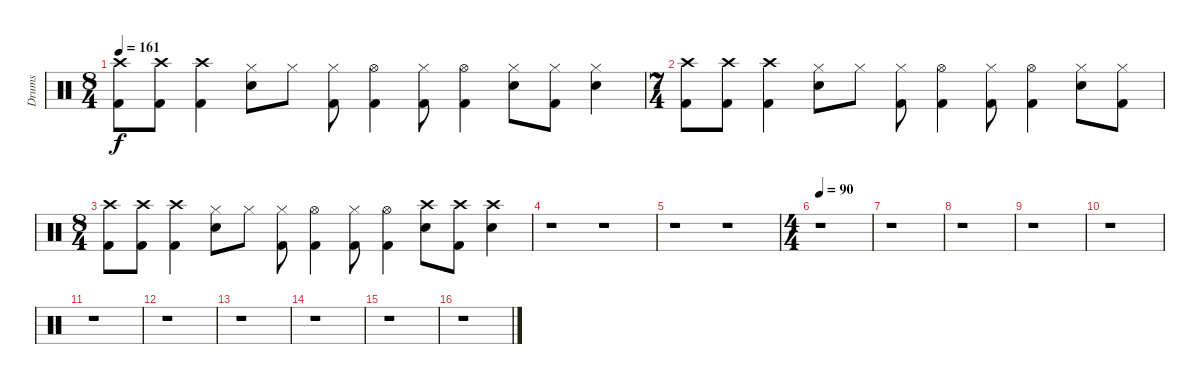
\track ("Drums" "Drums") {instrument percussion}
\staff {score}
\articulation defaults
\ts (8 4)
\tempo 161
\clef neutral
\ks c
("Crash high (hit)" "Kick (hit) 2").8{dy f} ("Crash high (hit)" "Kick (hit) 2").8 ("Crash high (hit)" "Kick (hit) 2").4 ("Hi-Hat (closed)" "Snare (hit) 2").8 "Hi-Hat (closed)".8 ("Hi-Hat (closed)" "Kick (hit) 2").8 ("Hi-Hat (open)" "Kick (hit) 2").4 ("Hi-Hat (closed)" "Kick (hit) 2").8 ("Hi-Hat (open)" "Kick (hit) 2").4 ("Hi-Hat (closed)" "Snare (hit) 2").8 ("Hi-Hat (closed)" "Kick (hit) 2").8 ("Hi-Hat (closed)" "Snare (hit) 2").4 |
\ts (7 4)
("Crash high (hit)" "Kick (hit) 2").8 ("Crash high (hit)" "Kick (hit) 2").8 ("Crash high (hit)" "Kick (hit) 2").4 ("Hi-Hat (closed)" "Snare (hit) 2").8 "Hi-Hat (closed)".8 ("Hi-Hat (closed)" "Kick (hit) 2").8 ("Hi-Hat (open)" "Kick (hit) 2").4 ("Hi-Hat (closed)" "Kick (hit) 2").8 ("Hi-Hat (open)" "Kick (hit) 2").4 ("Hi-Hat (closed)" "Snare (hit) 2").8 ("Hi-Hat (closed)" "Kick (hit) 2").8 |
\ts (8 4)
("Crash high (hit)" "Kick (hit) 2").8 ("Crash high (hit)" "Kick (hit) 2").8 ("Crash high (hit)" "Kick (hit) 2").4 ("Hi-Hat (closed)" "Snare (hit) 2").8 "Hi-Hat (closed)".8 ("Hi-Hat (closed)" "Kick (hit) 2").8 ("Hi-Hat (open)" "Kick (hit) 2").4 ("Hi-Hat (closed)" "Kick (hit) 2").8 ("Hi-Hat (open)" "Kick (hit) 2").4 ("Crash high (hit)" "Snare (hit) 2").8 ("Crash high (hit)" "Kick (hit) 2").8 ("Crash high (hit)" "Snare (hit) 2").4 |
r.1 r.1 |
r.1 r.1 |
\ts (4 4)
\tempo 90
r.1 |
r.1 |
r.1 |
r.1 |
r.1 |
r.1 |
r.1 |
r.1 |
r.1 |
r.1 |
r.1
